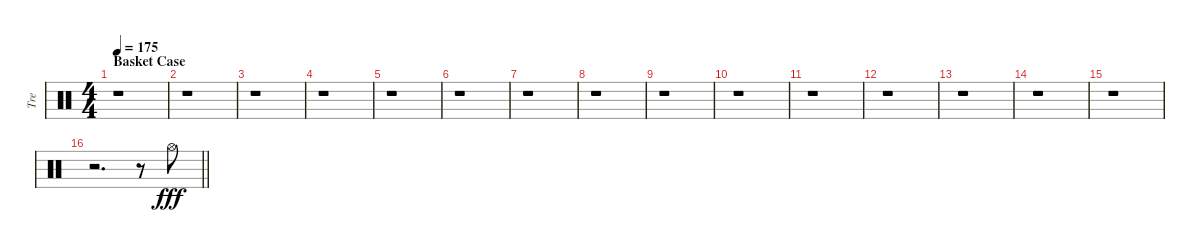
\track ("Tre" "Tre") {instrument percussion}
\staff {score}
\articulation defaults
\ts (4 4)
\section ("" "Basket Case")
\tempo 175
\clef neutral
\ks c
r.1{dy fff} |
r.1 |
r.1 |
r.1 |
r.1 |
r.1 |
r.1 |
r.1 |
r.1 |
r.1 |
r.1 |
r.1 |
r.1 |
r.1 |
r.1 |
\barLineRight lightlight
r.2{d} r.8 "Hi-Hat (open)".8
